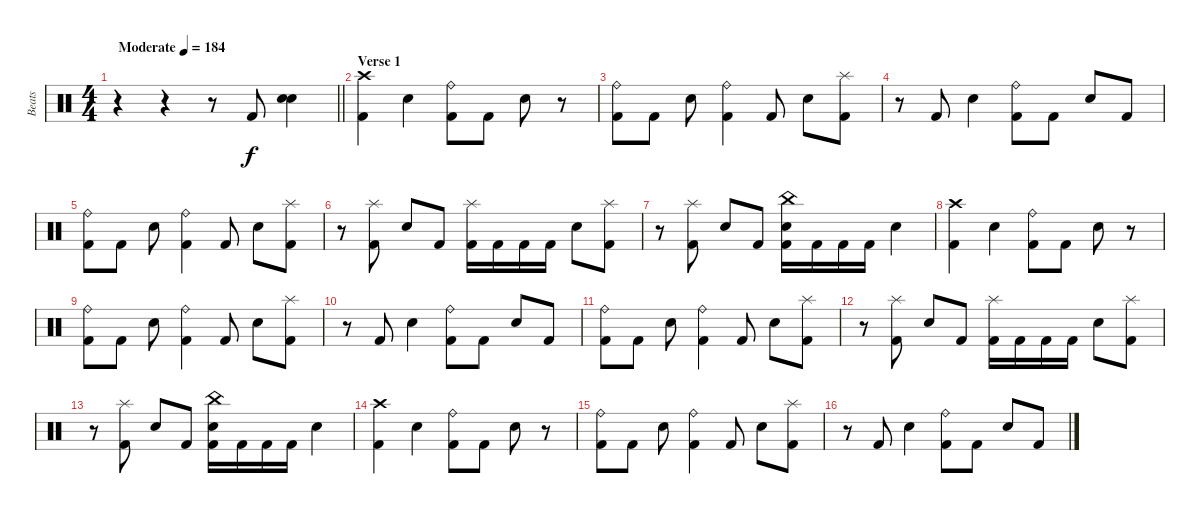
\track ("Beats" "Beats") {instrument percussion}
\staff {score}
\articulation defaults
\ts (4 4)
\tempo (184 "Moderate")
\clef neutral
\barLineRight lightlight
\ks c
r.4{dy f} r.4 r.8 "Kick (hit) 2".8 ("Electric Snare (hit)" "Electric Snare (hit)").4{bd 240} |
\section ("" "Verse 1")
("Crash high (hit)" "Kick (hit) 2").4 "Electric Snare (hit)".4 ("Ride (bell)" "Kick (hit) 2").8 "Kick (hit) 2".8 "Electric Snare (hit)".8 r.8 |
("Ride (bell)" "Kick (hit) 2").8 "Kick (hit) 2".8 "Electric Snare (hit)".8 ("Ride (bell)" "Kick (hit) 2").4 "Kick (hit) 2".8 "Electric Snare (hit)".8 ("Splash (hit)" "Kick (hit) 2").8 |
r.8 "Kick (hit) 2".8 "Electric Snare (hit)".4 ("Ride (bell)" "Kick (hit) 2").8 "Kick (hit) 2".8 "Electric Snare (hit)".8 "Kick (hit) 2".8 |
("Ride (bell)" "Kick (hit) 2").8 "Kick (hit) 2".8 "Electric Snare (hit)".8 ("Ride (bell)" "Kick (hit) 2").4 "Kick (hit) 2".8 "Electric Snare (hit)".8 ("Splash (hit)" "Kick (hit) 2").8 |
r.8 ("Splash (hit)" "Kick (hit) 2").8 "Electric Snare (hit)".8 "Kick (hit) 2".8 ("Splash (hit)" "Kick (hit) 2").16 "Kick (hit) 2".16 "Kick (hit) 2".16 "Kick (hit) 2".16 "Electric Snare (hit)".8 ("Splash (hit)" "Kick (hit) 2").8 |
r.8 ("Splash (hit)" "Kick (hit) 2").8 "Electric Snare (hit)".8 "Kick (hit) 2".8 ("China (hit)" "Electric Snare (hit)" "Kick (hit) 2").16 "Kick (hit) 2".16 "Kick (hit) 2".16 "Kick (hit) 2".16 "Electric Snare (hit)".4 |
("Crash high (hit)" "Kick (hit) 2").4 "Electric Snare (hit)".4 ("Ride (bell)" "Kick (hit) 2").8 "Kick (hit) 2".8 "Electric Snare (hit)".8 r.8 |
("Ride (bell)" "Kick (hit) 2").8 "Kick (hit) 2".8 "Electric Snare (hit)".8 ("Ride (bell)" "Kick (hit) 2").4 "Kick (hit) 2".8 "Electric Snare (hit)".8 ("Splash (hit)" "Kick (hit) 2").8 |
r.8 "Kick (hit) 2".8 "Electric Snare (hit)".4 ("Ride (bell)" "Kick (hit) 2").8 "Kick (hit) 2".8 "Electric Snare (hit)".8 "Kick (hit) 2".8 |
("Ride (bell)" "Kick (hit) 2").8 "Kick (hit) 2".8 "Electric Snare (hit)".8 ("Ride (bell)" "Kick (hit) 2").4 "Kick (hit) 2".8 "Electric Snare (hit)".8 ("Splash (hit)" "Kick (hit) 2").8 |
r.8 ("Splash (hit)" "Kick (hit) 2").8 "Electric Snare (hit)".8 "Kick (hit) 2".8 ("Splash (hit)" "Kick (hit) 2").16 "Kick (hit) 2".16 "Kick (hit) 2".16 "Kick (hit) 2".16 "Electric Snare (hit)".8 ("Splash (hit)" "Kick (hit) 2").8 |
r.8 ("Splash (hit)" "Kick (hit) 2").8 "Electric Snare (hit)".8 "Kick (hit) 2".8 ("China (hit)" "Electric Snare (hit)" "Kick (hit) 2").16 "Kick (hit) 2".16 "Kick (hit) 2".16 "Kick (hit) 2".16 "Electric Snare (hit)".4 |
("Crash high (hit)" "Kick (hit) 2").4 "Electric Snare (hit)".4 ("Ride (bell)" "Kick (hit) 2").8 "Kick (hit) 2".8 "Electric Snare (hit)".8 r.8 |
("Ride (bell)" "Kick (hit) 2").8 "Kick (hit) 2".8 "Electric Snare (hit)".8 ("Ride (bell)" "Kick (hit) 2").4 "Kick (hit) 2".8 "Electric Snare (hit)".8 ("Splash (hit)" "Kick (hit) 2").8 |
r.8 "Kick (hit) 2".8 "Electric Snare (hit)".4 ("Ride (bell)" "Kick (hit) 2").8 "Kick (hit) 2".8 "Electric Snare (hit)".8 "Kick (hit) 2".8
